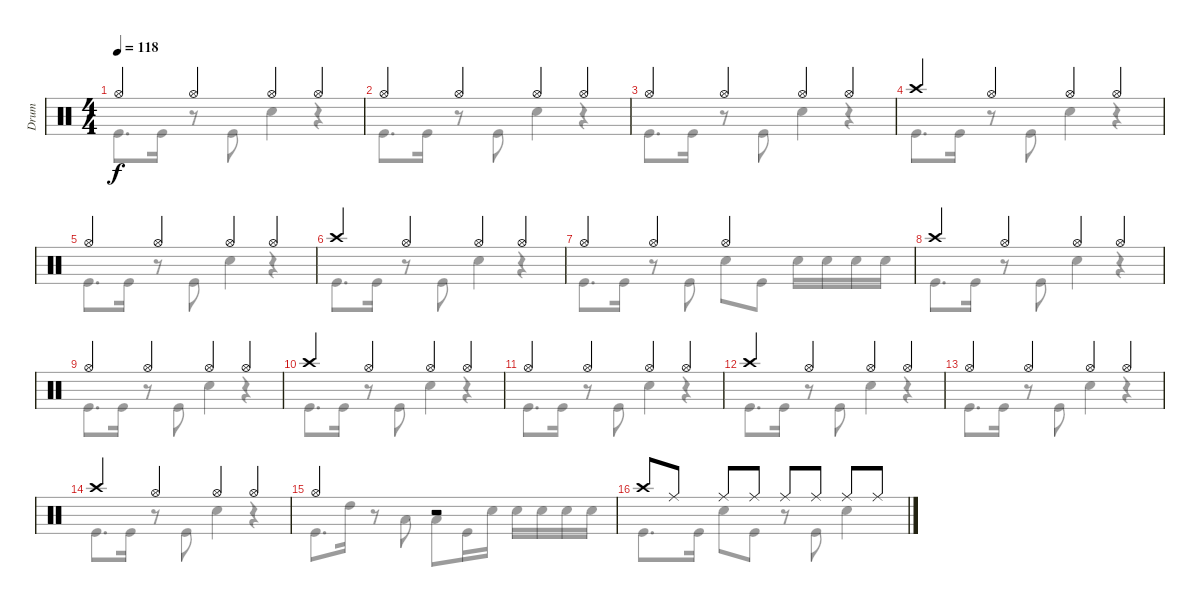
\track ("Drum" "Drum") {instrument percussion}
\staff {score}
\articulation defaults
\voice
\ts (4 4)
\tempo 118
\clef neutral
\ks c "Hi-Hat (open)".4{dy f} "Hi-Hat (open)".4 "Hi-Hat (open)".4 "Hi-Hat (open)".4
|
"Hi-Hat (open)".4 "Hi-Hat (open)".4 "Hi-Hat (open)".4 "Hi-Hat (open)".4 |
"Hi-Hat (open)".4 "Hi-Hat (open)".4 "Hi-Hat (open)".4 "Hi-Hat (open)".4 |
"Crash high (hit)".4 "Hi-Hat (open)".4 "Hi-Hat (open)".4 "Hi-Hat (open)".4 |
"Hi-Hat (open)".4 "Hi-Hat (open)".4 "Hi-Hat (open)".4 "Hi-Hat (open)".4 |
"Crash high (hit)".4 "Hi-Hat (open)".4 "Hi-Hat (open)".4 "Hi-Hat (open)".4 |
"Hi-Hat (open)".4 "Hi-Hat (open)".4 "Hi-Hat (open)".2 |
"Crash high (hit)".4 "Hi-Hat (open)".4 "Hi-Hat (open)".4 "Hi-Hat (open)".4 |
"Hi-Hat (open)".4 "Hi-Hat (open)".4 "Hi-Hat (open)".4 "Hi-Hat (open)".4 |
"Crash high (hit)".4 "Hi-Hat (open)".4 "Hi-Hat (open)".4 "Hi-Hat (open)".4 |
"Hi-Hat (open)".4 "Hi-Hat (open)".4 "Hi-Hat (open)".4 "Hi-Hat (open)".4 |
"Crash high (hit)".4 "Hi-Hat (open)".4 "Hi-Hat (open)".4 "Hi-Hat (open)".4 |
"Hi-Hat (open)".4 "Hi-Hat (open)".4 "Hi-Hat (open)".4 "Hi-Hat (open)".4 |
"Crash high (hit)".4 "Hi-Hat (open)".4 "Hi-Hat (open)".4 "Hi-Hat (open)".4 |
"Hi-Hat (open)".2 r.2 |
"Crash high (hit)".8 "Ride (middle)".8 "Ride (middle)".8 "Ride (middle)".8 "Ride (middle)".8 "Ride (middle)".8 "Ride (middle)".8 "Ride (middle)".8
\voice
\clef neutral
\ottava regular
\simile none
\ks c "Kick (hit)".8{d dy f} "Kick (hit)".16
r.8 "Kick (hit)".8 "Snare (hit) 2".4 r.4 |
"Kick (hit)".8{d} "Kick (hit)".16 r.8 "Kick (hit)".8 "Snare (hit) 2".4 r.4 |
"Kick (hit)".8{d} "Kick (hit)".16 r.8 "Kick (hit)".8 "Snare (hit) 2".4 r.4 |
"Kick (hit)".8{d} "Kick (hit)".16 r.8 "Kick (hit)".8 "Snare (hit) 2".4 r.4 |
"Kick (hit)".8{d} "Kick (hit)".16 r.8 "Kick (hit)".8 "Snare (hit) 2".4 r.4 |
"Kick (hit)".8{d} "Kick (hit)".16 r.8 "Kick (hit)".8 "Snare (hit) 2".4 r.4 |
"Kick (hit)".8{d} "Kick (hit)".16 r.8 "Kick (hit)".8 "Snare (hit) 2".8 "Kick (hit)".8 "Snare (hit) 2".16 "Snare (hit) 2".16 "Snare (hit) 2".16 "Snare (hit) 2".16 |
"Kick (hit)".8{d} "Kick (hit)".16 r.8 "Kick (hit)".8 "Snare (hit) 2".4 r.4 |
"Kick (hit)".8{d} "Kick (hit)".16 r.8 "Kick (hit)".8 "Snare (hit) 2".4 r.4 |
"Kick (hit)".8{d} "Kick (hit)".16 r.8 "Kick (hit)".8 "Snare (hit) 2".4 r.4 |
"Kick (hit)".8{d} "Kick (hit)".16 r.8 "Kick (hit)".8 "Snare (hit) 2".4 r.4 |
"Kick (hit)".8{d} "Kick (hit)".16 r.8 "Kick (hit)".8 "Snare (hit) 2".4 r.4 |
"Kick (hit)".8{d} "Kick (hit)".16 r.8 "Kick (hit)".8 "Snare (hit) 2".4 r.4 |
"Kick (hit)".8{d} "Kick (hit)".16 r.8 "Kick (hit)".8 "Snare (hit) 2".4 r.4 |
"Kick (hit)".8{d} "High Tom (hit)".16 r.8 "Low Tom (hit)".8 "Low Floor Tom (hit)".8 "Kick (hit)".16 "Snare (hit) 2".16 "Snare (hit) 2".16 "Snare (hit) 2".16 "Snare (hit) 2".16 "Snare (hit) 2".16 |
"Kick (hit)".8{d} "Kick (hit)".16 "Snare (hit) 2".8 "Kick (hit)".8 r.8 "Kick (hit)".8 "Snare (hit) 2".4
